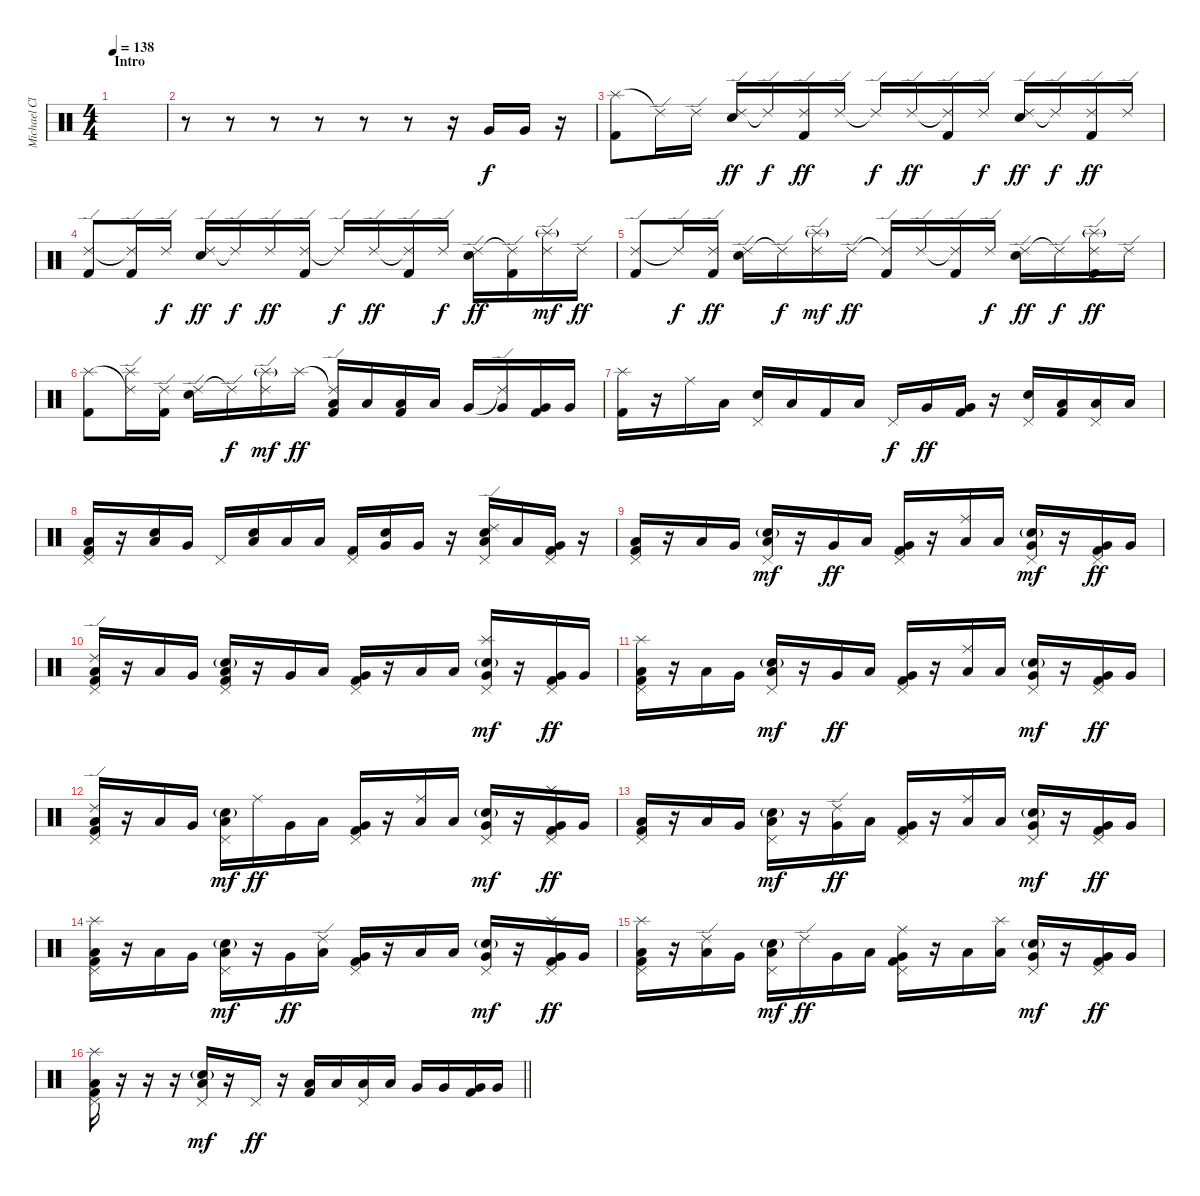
\track ("Michael Clarke" "Michael Cl") {instrument percussion}
\staff {score}
\articulation defaults
\ts (4 4)
\section ("" "Intro")
\tempo 138
\clef neutral
\ks c
|
r.8 r.8 r.8 r.8 r.8 r.8 r.16 "Very Low Tom (hit)".16 "Very Low Tom (hit)".16 r.16 |
("Splash (hit)" "Kick (hit) 2").8 "Ride (edge) 2"{t}.16{dy f} "Ride (edge) 2".16 ("Ride (edge) 2" "Snare (hit) 2").16{dy ff} "Ride (edge) 2"{t}.16{dy f} ("Ride (edge) 2" "Kick (hit) 2").16{dy ff} "Ride (edge) 2".16 "Ride (edge) 2"{t}.16{dy f} "Ride (edge) 2".16{dy ff} ("Ride (edge) 2"{t} "Kick (hit) 2").16 "Ride (edge) 2".16{dy f} ("Ride (edge) 2" "Snare (hit) 2").16{dy ff} "Ride (edge) 2"{t}.16{dy f} ("Ride (edge) 2" "Kick (hit) 2").16{dy ff} "Ride (edge) 2".16 |
("Ride (edge) 2" "Kick (hit) 2").8 ("Ride (edge) 2"{t} "Kick (hit) 2").16 "Ride (edge) 2".16{dy f} ("Ride (edge) 2" "Snare (hit) 2").16{dy ff} "Ride (edge) 2"{t}.16{dy f} "Ride (edge) 2".16{dy ff} ("Ride (edge) 2" "Kick (hit) 2").16 "Ride (edge) 2"{t}.16{dy f} "Ride (edge) 2".16{dy ff} ("Ride (edge) 2"{t} "Kick (hit) 2").16 "Ride (edge) 2".16{dy f} ("Ride (edge) 2" "Snare (hit) 2").16{dy ff} ("Ride (edge) 2"{t} "Kick (hit) 2").16 ("Ride (edge) 2" "Splash (hit)"{g}).16{dy mf} "Ride (edge) 2".16{dy ff} |
("Ride (edge) 2" "Kick (hit) 2").8 "Ride (edge) 2"{t}.16{dy f} ("Ride (edge) 2" "Kick (hit) 2").16{dy ff} ("Ride (edge) 2" "Snare (hit) 2").16 "Ride (edge) 2"{t}.16{dy f} ("Ride (edge) 2" "Splash (hit)"{g}).16{dy mf} "Ride (edge) 2".16{dy ff} ("Ride (edge) 2"{t} "Kick (hit) 2").16 "Ride (edge) 2".16 ("Ride (edge) 2"{t} "Kick (hit) 2").16 "Ride (edge) 2".16{dy f} ("Ride (edge) 2" "Snare (hit) 2").16{dy ff} "Ride (edge) 2"{t}.16{dy f} ("Ride (edge) 2" "Splash (hit)"{g} "Kick (hit) 2").16{dy ff} "Ride (edge) 2".16 |
("Splash (hit)" "Kick (hit) 2").8 ("Ride (edge) 2"{t} "Splash (hit)").16 ("Ride (edge) 2" "Kick (hit) 2").16 ("Ride (edge) 2" "Snare (hit) 2").16 "Ride (edge) 2"{t}.16{dy f} ("Ride (edge) 2" "Splash (hit)"{g}).16{dy mf} "Splash (hit)".16{dy ff} ("Ride (edge) 2"{t} "Low Tom (hit)" "Kick (hit) 2").16 "Low Tom (hit)".16 ("Low Tom (hit)" "Kick (hit) 2").16 "Low Tom (hit)".16 "Very Low Tom (hit)".16 ("Ride (edge) 2"{t} "Very Low Tom (hit)").16 ("Very Low Tom (hit)" "Kick (hit) 2").16 "Very Low Tom (hit)".16 |
("Splash (hit)" "Kick (hit) 2").16 r.16 "Ride (middle)".16 "Low Tom (hit)".16 ("Pedal Hi-Hat (hit)" "Snare (hit) 2").16 "Low Floor Tom (hit)".16 "Kick (hit) 2".16 "Low Floor Tom (hit)".16 "Pedal Hi-Hat (hit)".16{dy f} "Very Low Tom (hit)".16{dy ff} ("Very Low Tom (hit)" "Kick (hit) 2").16 r.16 ("Pedal Hi-Hat (hit)" "Snare (hit) 2").16 ("Low Floor Tom (hit)" "Kick (hit) 2").16 ("Pedal Hi-Hat (hit)" "Low Floor Tom (hit)").16 "Low Floor Tom (hit)".16 |
("Pedal Hi-Hat (hit)" "Low Floor Tom (hit)" "Kick (hit) 2").16 r.16 ("Low Floor Tom (hit)" "Snare (hit) 2").16 "Very Low Tom (hit)".16 "Pedal Hi-Hat (hit)".16 ("Low Floor Tom (hit)" "Snare (hit) 2").16 "Low Floor Tom (hit)".16 "Low Floor Tom (hit)".16 ("Pedal Hi-Hat (hit)" "Kick (hit) 2").16 ("Very Low Tom (hit)" "Snare (hit) 2").16 "Very Low Tom (hit)".16 r.16 ("Ride (edge) 2" "Pedal Hi-Hat (hit)" "Low Floor Tom (hit)" "Snare (hit) 2").16 "Low Floor Tom (hit)".16 ("Pedal Hi-Hat (hit)" "Very Low Tom (hit)" "Kick (hit) 2").16 r.16 |
("Pedal Hi-Hat (hit)" "Low Floor Tom (hit)" "Kick (hit) 2").16 r.16 "Low Floor Tom (hit)".16 "Very Low Tom (hit)".16 ("Pedal Hi-Hat (hit)" "Low Floor Tom (hit)" "Snare (hit) 2"{g}).16{dy mf} r.16 "Very Low Tom (hit)".16{dy ff} "Low Floor Tom (hit)".16 ("Pedal Hi-Hat (hit)" "Very Low Tom (hit)" "Kick (hit) 2").16 r.16 ("Ride (middle)" "Low Floor Tom (hit)").16 "Low Floor Tom (hit)".16 ("Pedal Hi-Hat (hit)" "Very Low Tom (hit)" "Snare (hit) 2"{g}).16{dy mf} r.16 ("Pedal Hi-Hat (hit)" "Very Low Tom (hit)" "Kick (hit) 2").16{dy ff} "Very Low Tom (hit)".16 |
("Ride (edge) 2" "Pedal Hi-Hat (hit)" "Low Floor Tom (hit)" "Kick (hit) 2").16 r.16 "Low Floor Tom (hit)".16 "Very Low Tom (hit)".16 ("Pedal Hi-Hat (hit)" "Low Floor Tom (hit)" "Snare (hit) 2"{g} "Kick (hit) 2").16 r.16 "Very Low Tom (hit)".16 "Low Floor Tom (hit)".16 ("Pedal Hi-Hat (hit)" "Very Low Tom (hit)" "Kick (hit) 2").16 r.16 "Low Floor Tom (hit)".16 "Low Floor Tom (hit)".16 ("Splash (hit)" "Pedal Hi-Hat (hit)" "Very Low Tom (hit)" "Snare (hit) 2"{g}).16{dy mf} r.16 ("Pedal Hi-Hat (hit)" "Very Low Tom (hit)" "Kick (hit) 2").16{dy ff} "Very Low Tom (hit)".16 |
("Splash (hit)" "Pedal Hi-Hat (hit)" "Low Floor Tom (hit)" "Kick (hit) 2").16 r.16 "Low Floor Tom (hit)".16 "Very Low Tom (hit)".16 ("Pedal Hi-Hat (hit)" "Low Floor Tom (hit)" "Snare (hit) 2"{g}).16{dy mf} r.16 "Very Low Tom (hit)".16{dy ff} "Low Floor Tom (hit)".16 ("Pedal Hi-Hat (hit)" "Very Low Tom (hit)" "Kick (hit) 2").16 r.16 ("Ride (middle)" "Low Floor Tom (hit)").16 "Low Floor Tom (hit)".16 ("Pedal Hi-Hat (hit)" "Very Low Tom (hit)" "Snare (hit) 2"{g}).16{dy mf} r.16 ("Pedal Hi-Hat (hit)" "Very Low Tom (hit)" "Kick (hit) 2").16{dy ff} "Very Low Tom (hit)".16 |
("Ride (edge) 2" "Pedal Hi-Hat (hit)" "Low Floor Tom (hit)" "Kick (hit) 2").16 r.16 "Low Floor Tom (hit)".16 "Very Low Tom (hit)".16 ("Pedal Hi-Hat (hit)" "Low Floor Tom (hit)" "Snare (hit) 2"{g}).16{dy mf} "Ride (middle)".16{dy ff} "Very Low Tom (hit)".16 "Low Floor Tom (hit)".16 ("Pedal Hi-Hat (hit)" "Very Low Tom (hit)" "Kick (hit) 2").16 r.16 ("Ride (middle)" "Low Floor Tom (hit)").16 "Low Floor Tom (hit)".16 ("Pedal Hi-Hat (hit)" "Very Low Tom (hit)" "Snare (hit) 2"{g}).16{dy mf} r.16 ("Splash (hit)" "Pedal Hi-Hat (hit)" "Very Low Tom (hit)" "Kick (hit) 2").16{dy ff} "Very Low Tom (hit)".16 |
("Pedal Hi-Hat (hit)" "Low Floor Tom (hit)" "Kick (hit) 2").16 r.16 "Low Floor Tom (hit)".16 "Very Low Tom (hit)".16 ("Pedal Hi-Hat (hit)" "Low Floor Tom (hit)" "Snare (hit) 2"{g}).16{dy mf} r.16 ("Ride (edge) 2" "Very Low Tom (hit)").16{dy ff} "Low Floor Tom (hit)".16 ("Pedal Hi-Hat (hit)" "Very Low Tom (hit)" "Kick (hit) 2").16 r.16 ("Ride (middle)" "Low Floor Tom (hit)").16 "Low Floor Tom (hit)".16 ("Pedal Hi-Hat (hit)" "Very Low Tom (hit)" "Snare (hit) 2"{g}).16{dy mf} r.16 ("Pedal Hi-Hat (hit)" "Very Low Tom (hit)" "Kick (hit) 2").16{dy ff} "Very Low Tom (hit)".16 |
("Splash (hit)" "Pedal Hi-Hat (hit)" "Low Floor Tom (hit)" "Kick (hit) 2").16 r.16 "Low Floor Tom (hit)".16 "Very Low Tom (hit)".16 ("Pedal Hi-Hat (hit)" "Low Floor Tom (hit)" "Snare (hit) 2"{g}).16{dy mf} r.16 "Very Low Tom (hit)".16{dy ff} ("Ride (edge) 2" "Low Floor Tom (hit)").16 ("Pedal Hi-Hat (hit)" "Very Low Tom (hit)" "Kick (hit) 2").16 r.16 "Low Floor Tom (hit)".16 "Low Floor Tom (hit)".16 ("Pedal Hi-Hat (hit)" "Very Low Tom (hit)" "Snare (hit) 2"{g}).16{dy mf} r.16 ("Splash (hit)" "Pedal Hi-Hat (hit)" "Very Low Tom (hit)" "Kick (hit) 2").16{dy ff} "Very Low Tom (hit)".16 |
("Splash (hit)" "Pedal Hi-Hat (hit)" "Low Floor Tom (hit)" "Kick (hit) 2").16 r.16 ("Ride (edge) 2" "Low Floor Tom (hit)").16 "Very Low Tom (hit)".16 ("Pedal Hi-Hat (hit)" "Low Floor Tom (hit)" "Snare (hit) 2"{g}).16{dy mf} "Ride (edge) 2".16{dy ff} "Very Low Tom (hit)".16 "Low Floor Tom (hit)".16 ("Ride (middle)" "Pedal Hi-Hat (hit)" "Very Low Tom (hit)" "Kick (hit) 2").16 r.16 "Low Floor Tom (hit)".16 ("Splash (hit)" "Low Floor Tom (hit)").16 ("Pedal Hi-Hat (hit)" "Very Low Tom (hit)" "Snare (hit) 2"{g}).16{dy mf} r.16 ("Pedal Hi-Hat (hit)" "Very Low Tom (hit)" "Kick (hit) 2").16{dy ff} "Very Low Tom (hit)".16 |
\barLineRight lightlight
("Splash (hit)" "Pedal Hi-Hat (hit)" "Low Floor Tom (hit)" "Kick (hit) 2").16 r.16 r.16 r.16 ("Pedal Hi-Hat (hit)" "Low Floor Tom (hit)" "Snare (hit) 2"{g}).16{dy mf} r.16 "Pedal Hi-Hat (hit)".16{dy ff} r.16 ("Low Tom (hit)" "Kick (hit) 2").16 "Low Tom (hit)".16 ("Pedal Hi-Hat (hit)" "Low Tom (hit)").16 "Low Tom (hit)".16 "Very Low Tom (hit)".16 "Very Low Tom (hit)".16 ("Very Low Tom (hit)" "Kick (hit) 2").16 "Very Low Tom (hit)".16
